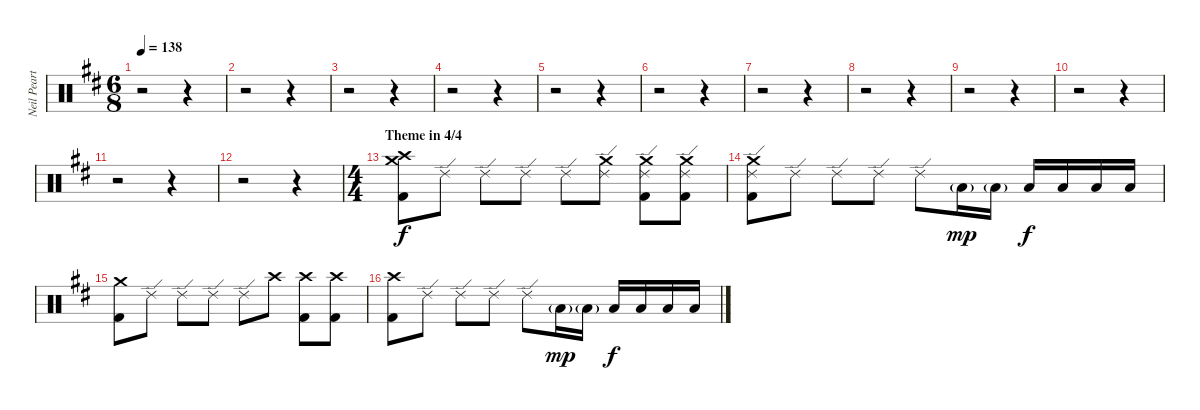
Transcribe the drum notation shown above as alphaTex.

\track ("Neil Peart" "Neil Peart") {instrument percussion}
\staff {score}
\articulation defaults
\ts (6 8)
\tempo 138
\clef neutral
\ks d
r.2{dy f} r.4 |
r.2 r.4 |
r.2 r.4 |
r.2 r.4 |
r.2 r.4 |
r.2 r.4 |
r.2 r.4 |
r.2 r.4 |
r.2 r.4 |
r.2 r.4 |
r.2 r.4 |
r.2 r.4 |
\ts (4 4)
\section ("" "Theme in 4/4")
("Crash high (hit)" "Crash medium (hit)" "Kick (hit) 2").8 "Ride (edge) 2".8 "Ride (edge) 2".8 "Ride (edge) 2".8 "Ride (edge) 2".8 ("Crash medium (hit)" "Ride (edge) 2").8 ("Crash medium (hit)" "Ride (edge) 2" "Kick (hit) 2").8 ("Crash medium (hit)" "Ride (edge) 2" "Kick (hit) 2").8 |
("Crash medium (hit)" "Ride (edge) 2" "Kick (hit) 2").8 "Ride (edge) 2".8 "Ride (edge) 2".8 "Ride (edge) 2".8 "Ride (edge) 2".8 "Low Floor Tom (hit)"{g}.16{dy mp} "Low Floor Tom (hit)"{g}.16 "Low Floor Tom (hit)".16{dy f} "Low Floor Tom (hit)".16 "Low Floor Tom (hit)".16 "Low Floor Tom (hit)".16 |
("Crash medium (hit)" "Kick (hit) 2").8 "Ride (edge) 2".8 "Ride (edge) 2".8 "Ride (edge) 2".8 "Ride (edge) 2".8 "Crash high (hit)".8 ("Crash high (hit)" "Kick (hit) 2").8 ("Crash high (hit)" "Kick (hit) 2").8 |
("Crash high (hit)" "Kick (hit) 2").8 "Ride (edge) 2".8 "Ride (edge) 2".8 "Ride (edge) 2".8 "Ride (edge) 2".8 "Low Floor Tom (hit)"{g}.16{dy mp} "Low Floor Tom (hit)"{g}.16 "Low Floor Tom (hit)".16{dy f} "Low Floor Tom (hit)".16 "Low Floor Tom (hit)".16 "Low Floor Tom (hit)".16
